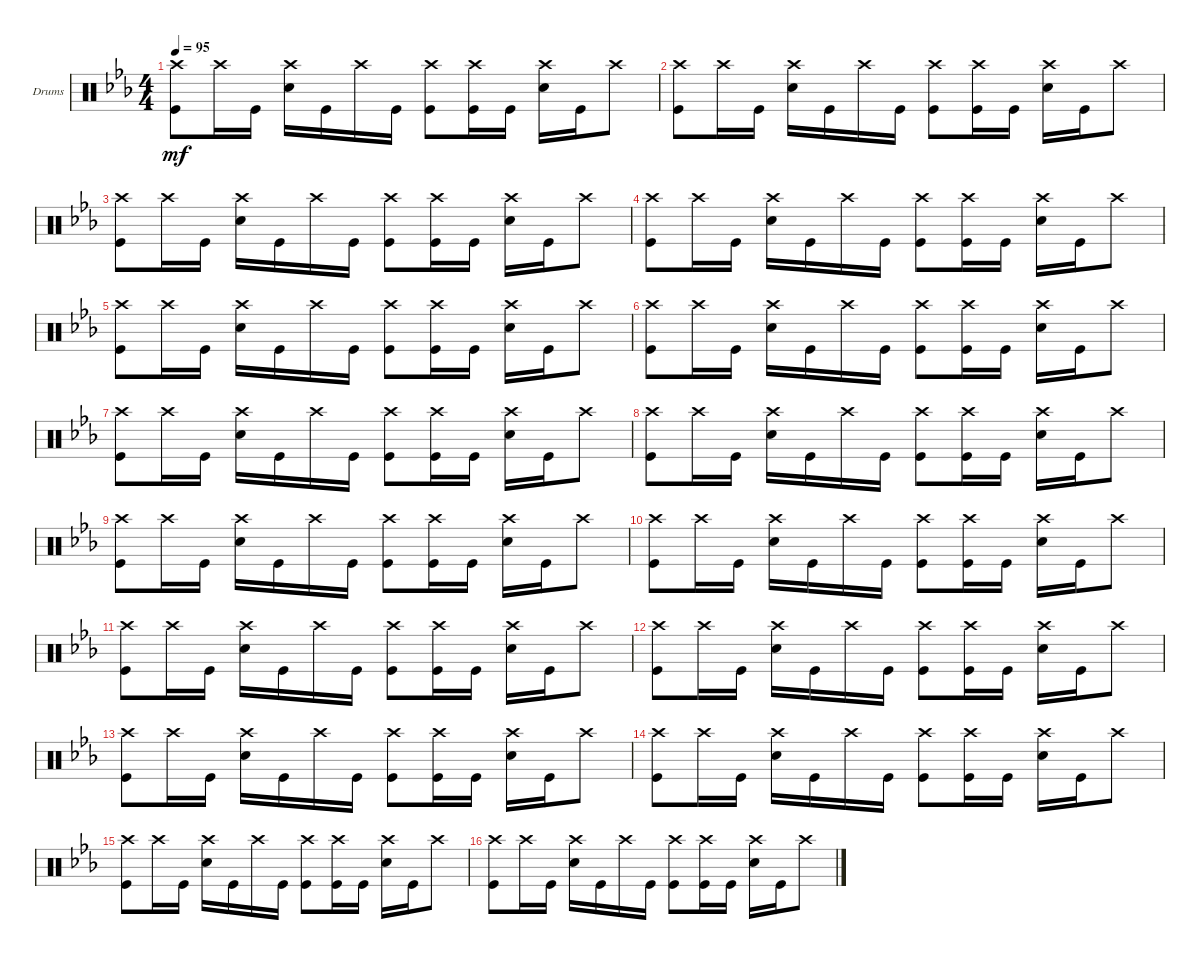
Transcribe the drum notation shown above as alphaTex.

\bracketExtendMode groupsimilarinstruments
\firstSystemTrackNameOrientation horizontal
\otherSystemsTrackNameOrientation horizontal
\track ("Drums" "Drums") {instrument percussion}
\staff {score}
\articulation defaults
\ts (4 4)
\tempo 95
\clef neutral
\scale
0.333333
\ks eb
("Kick (hit)" "Crash high (hit)").8{dy mf} "Crash high (hit)".16 "Kick (hit)".16 ("Snare (hit) 2" "Crash high (hit)").16 "Kick (hit)".16 "Crash high (hit)".16 "Kick (hit)".16 ("Kick (hit)" "Crash high (hit)").8 ("Kick (hit)" "Crash high (hit)").16 "Kick (hit)".16 ("Snare (hit) 2" "Crash high (hit)").16 "Kick (hit)".16 "Crash high (hit)".8 |
\scale
0.333333 ("Kick (hit)" "Crash high (hit)").8 "Crash high (hit)".16 "Kick (hit)".16 ("Snare (hit) 2" "Crash high (hit)").16 "Kick (hit)".16 "Crash high (hit)".16 "Kick (hit)".16 ("Kick (hit)" "Crash high (hit)").8 ("Kick (hit)" "Crash high (hit)").16 "Kick (hit)".16 ("Snare (hit) 2" "Crash high (hit)").16 "Kick (hit)".16 "Crash high (hit)".8 |
\scale
0.333333 ("Kick (hit)" "Crash high (hit)").8 "Crash high (hit)".16 "Kick (hit)".16 ("Snare (hit) 2" "Crash high (hit)").16 "Kick (hit)".16 "Crash high (hit)".16 "Kick (hit)".16 ("Kick (hit)" "Crash high (hit)").8 ("Kick (hit)" "Crash high (hit)").16 "Kick (hit)".16 ("Snare (hit) 2" "Crash high (hit)").16 "Kick (hit)".16 "Crash high (hit)".8 |
\section ("" "")
\scale
0.333333 ("Kick (hit)" "Crash high (hit)").8 "Crash high (hit)".16 "Kick (hit)".16 ("Snare (hit) 2" "Crash high (hit)").16 "Kick (hit)".16 "Crash high (hit)".16 "Kick (hit)".16 ("Kick (hit)" "Crash high (hit)").8 ("Kick (hit)" "Crash high (hit)").16 "Kick (hit)".16 ("Snare (hit) 2" "Crash high (hit)").16 "Kick (hit)".16 "Crash high (hit)".8 |
\scale
0.333333 ("Kick (hit)" "Crash high (hit)").8 "Crash high (hit)".16 "Kick (hit)".16 ("Snare (hit) 2" "Crash high (hit)").16 "Kick (hit)".16 "Crash high (hit)".16 "Kick (hit)".16 ("Kick (hit)" "Crash high (hit)").8 ("Kick (hit)" "Crash high (hit)").16 "Kick (hit)".16 ("Snare (hit) 2" "Crash high (hit)").16 "Kick (hit)".16 "Crash high (hit)".8 |
\scale
0.333333 ("Kick (hit)" "Crash high (hit)").8 "Crash high (hit)".16 "Kick (hit)".16 ("Snare (hit) 2" "Crash high (hit)").16 "Kick (hit)".16 "Crash high (hit)".16 "Kick (hit)".16 ("Kick (hit)" "Crash high (hit)").8 ("Kick (hit)" "Crash high (hit)").16 "Kick (hit)".16 ("Snare (hit) 2" "Crash high (hit)").16 "Kick (hit)".16 "Crash high (hit)".8 |
\scale
0.333333 ("Kick (hit)" "Crash high (hit)").8 "Crash high (hit)".16 "Kick (hit)".16 ("Snare (hit) 2" "Crash high (hit)").16 "Kick (hit)".16 "Crash high (hit)".16 "Kick (hit)".16 ("Kick (hit)" "Crash high (hit)").8 ("Kick (hit)" "Crash high (hit)").16 "Kick (hit)".16 ("Snare (hit) 2" "Crash high (hit)").16 "Kick (hit)".16 "Crash high (hit)".8 |
\scale
0.333333 ("Kick (hit)" "Crash high (hit)").8 "Crash high (hit)".16 "Kick (hit)".16 ("Snare (hit) 2" "Crash high (hit)").16 "Kick (hit)".16 "Crash high (hit)".16 "Kick (hit)".16 ("Kick (hit)" "Crash high (hit)").8 ("Kick (hit)" "Crash high (hit)").16 "Kick (hit)".16 ("Snare (hit) 2" "Crash high (hit)").16 "Kick (hit)".16 "Crash high (hit)".8 |
\scale
0.333333 ("Kick (hit)" "Crash high (hit)").8 "Crash high (hit)".16 "Kick (hit)".16 ("Snare (hit) 2" "Crash high (hit)").16 "Kick (hit)".16 "Crash high (hit)".16 "Kick (hit)".16 ("Kick (hit)" "Crash high (hit)").8 ("Kick (hit)" "Crash high (hit)").16 "Kick (hit)".16 ("Snare (hit) 2" "Crash high (hit)").16 "Kick (hit)".16 "Crash high (hit)".8 |
\scale
0.333333 ("Kick (hit)" "Crash high (hit)").8 "Crash high (hit)".16 "Kick (hit)".16 ("Snare (hit) 2" "Crash high (hit)").16 "Kick (hit)".16 "Crash high (hit)".16 "Kick (hit)".16 ("Kick (hit)" "Crash high (hit)").8 ("Kick (hit)" "Crash high (hit)").16 "Kick (hit)".16 ("Snare (hit) 2" "Crash high (hit)").16 "Kick (hit)".16 "Crash high (hit)".8 |
\scale
0.333333 ("Kick (hit)" "Crash high (hit)").8 "Crash high (hit)".16 "Kick (hit)".16 ("Snare (hit) 2" "Crash high (hit)").16 "Kick (hit)".16 "Crash high (hit)".16 "Kick (hit)".16 ("Kick (hit)" "Crash high (hit)").8 ("Kick (hit)" "Crash high (hit)").16 "Kick (hit)".16 ("Snare (hit) 2" "Crash high (hit)").16 "Kick (hit)".16 "Crash high (hit)".8 |
\scale
0.333333 ("Kick (hit)" "Crash high (hit)").8 "Crash high (hit)".16 "Kick (hit)".16 ("Snare (hit) 2" "Crash high (hit)").16 "Kick (hit)".16 "Crash high (hit)".16 "Kick (hit)".16 ("Kick (hit)" "Crash high (hit)").8 ("Kick (hit)" "Crash high (hit)").16 "Kick (hit)".16 ("Snare (hit) 2" "Crash high (hit)").16 "Kick (hit)".16 "Crash high (hit)".8 |
\scale
0.333333 ("Kick (hit)" "Crash high (hit)").8 "Crash high (hit)".16 "Kick (hit)".16 ("Snare (hit) 2" "Crash high (hit)").16 "Kick (hit)".16 "Crash high (hit)".16 "Kick (hit)".16 ("Kick (hit)" "Crash high (hit)").8 ("Kick (hit)" "Crash high (hit)").16 "Kick (hit)".16 ("Snare (hit) 2" "Crash high (hit)").16 "Kick (hit)".16 "Crash high (hit)".8 |
\scale
0.333333 ("Kick (hit)" "Crash high (hit)").8 "Crash high (hit)".16 "Kick (hit)".16 ("Snare (hit) 2" "Crash high (hit)").16 "Kick (hit)".16 "Crash high (hit)".16 "Kick (hit)".16 ("Kick (hit)" "Crash high (hit)").8 ("Kick (hit)" "Crash high (hit)").16 "Kick (hit)".16 ("Snare (hit) 2" "Crash high (hit)").16 "Kick (hit)".16 "Crash high (hit)".8 |
\scale
0.333333 ("Kick (hit)" "Crash high (hit)").8 "Crash high (hit)".16 "Kick (hit)".16 ("Snare (hit) 2" "Crash high (hit)").16 "Kick (hit)".16 "Crash high (hit)".16 "Kick (hit)".16 ("Kick (hit)" "Crash high (hit)").8 ("Kick (hit)" "Crash high (hit)").16 "Kick (hit)".16 ("Snare (hit) 2" "Crash high (hit)").16 "Kick (hit)".16 "Crash high (hit)".8 |
\scale
0.333333 ("Kick (hit)" "Crash high (hit)").8 "Crash high (hit)".16 "Kick (hit)".16 ("Snare (hit) 2" "Crash high (hit)").16 "Kick (hit)".16 "Crash high (hit)".16 "Kick (hit)".16 ("Kick (hit)" "Crash high (hit)").8 ("Kick (hit)" "Crash high (hit)").16 "Kick (hit)".16 ("Snare (hit) 2" "Crash high (hit)").16 "Kick (hit)".16 "Crash high (hit)".8
